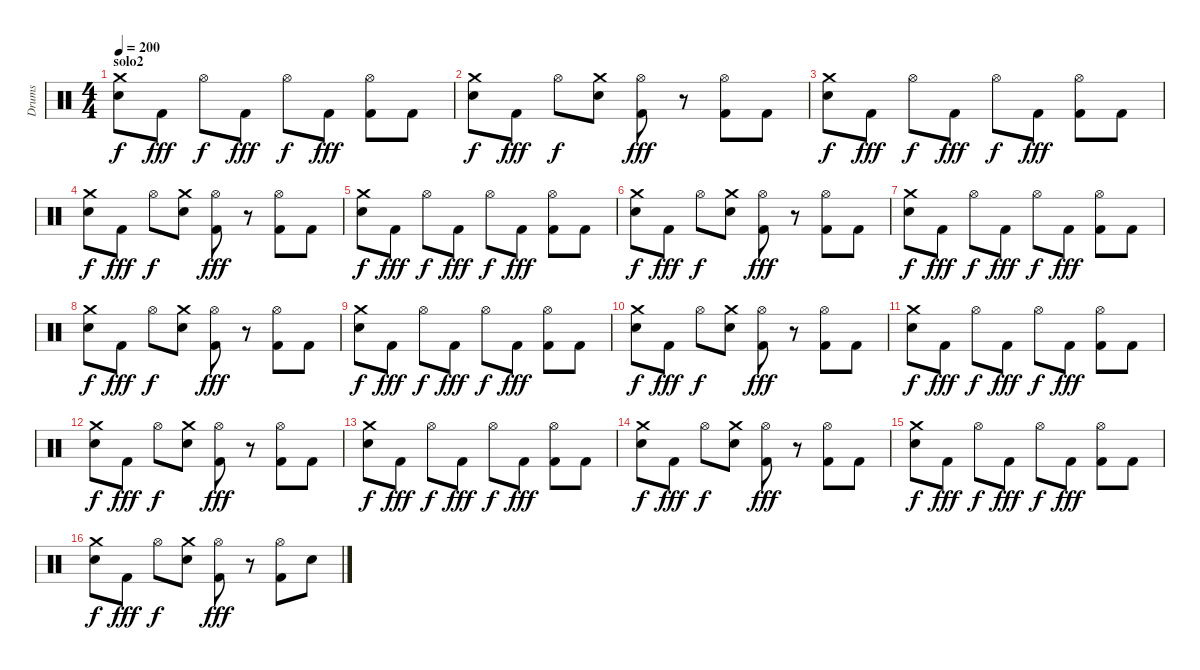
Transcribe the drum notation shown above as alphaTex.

\track ("Drums" "Drums") {instrument percussion}
\staff {score}
\articulation defaults
\ts (4 4)
\section ("" "solo2")
\tempo 200
\clef neutral
\ks c
("Crash medium (hit)" "Electric Snare (hit)").8{dy f} "Kick (hit) 2".8{dy fff} "Hi-Hat (open)".8{dy f} "Kick (hit) 2".8{dy fff} "Hi-Hat (open)".8{dy f} "Kick (hit) 2".8{dy fff} ("Hi-Hat (open)" "Kick (hit) 2").8 "Kick (hit) 2".8 |
("Crash medium (hit)" "Electric Snare (hit)").8{dy f} "Kick (hit) 2".8{dy fff} "Hi-Hat (open)".8{dy f} ("Crash medium (hit)" "Electric Snare (hit)").8 ("Hi-Hat (open)" "Kick (hit) 2").8{dy fff} r.8 ("Hi-Hat (open)" "Kick (hit) 2").8 "Kick (hit) 2".8 |
("Crash medium (hit)" "Electric Snare (hit)").8{dy f} "Kick (hit) 2".8{dy fff} "Hi-Hat (open)".8{dy f} "Kick (hit) 2".8{dy fff} "Hi-Hat (open)".8{dy f} "Kick (hit) 2".8{dy fff} ("Hi-Hat (open)" "Kick (hit) 2").8 "Kick (hit) 2".8 |
("Crash medium (hit)" "Electric Snare (hit)").8{dy f} "Kick (hit) 2".8{dy fff} "Hi-Hat (open)".8{dy f} ("Crash medium (hit)" "Electric Snare (hit)").8 ("Hi-Hat (open)" "Kick (hit) 2").8{dy fff} r.8 ("Hi-Hat (open)" "Kick (hit) 2").8 "Kick (hit) 2".8 |
("Crash medium (hit)" "Electric Snare (hit)").8{dy f} "Kick (hit) 2".8{dy fff} "Hi-Hat (open)".8{dy f} "Kick (hit) 2".8{dy fff} "Hi-Hat (open)".8{dy f} "Kick (hit) 2".8{dy fff} ("Hi-Hat (open)" "Kick (hit) 2").8 "Kick (hit) 2".8 |
("Crash medium (hit)" "Electric Snare (hit)").8{dy f} "Kick (hit) 2".8{dy fff} "Hi-Hat (open)".8{dy f} ("Crash medium (hit)" "Electric Snare (hit)").8 ("Hi-Hat (open)" "Kick (hit) 2").8{dy fff} r.8 ("Hi-Hat (open)" "Kick (hit) 2").8 "Kick (hit) 2".8 |
("Crash medium (hit)" "Electric Snare (hit)").8{dy f} "Kick (hit) 2".8{dy fff} "Hi-Hat (open)".8{dy f} "Kick (hit) 2".8{dy fff} "Hi-Hat (open)".8{dy f} "Kick (hit) 2".8{dy fff} ("Hi-Hat (open)" "Kick (hit) 2").8 "Kick (hit) 2".8 |
("Crash medium (hit)" "Electric Snare (hit)").8{dy f} "Kick (hit) 2".8{dy fff} "Hi-Hat (open)".8{dy f} ("Crash medium (hit)" "Electric Snare (hit)").8 ("Hi-Hat (open)" "Kick (hit) 2").8{dy fff} r.8 ("Hi-Hat (open)" "Kick (hit) 2").8 "Kick (hit) 2".8 |
("Crash medium (hit)" "Electric Snare (hit)").8{dy f} "Kick (hit) 2".8{dy fff} "Hi-Hat (open)".8{dy f} "Kick (hit) 2".8{dy fff} "Hi-Hat (open)".8{dy f} "Kick (hit) 2".8{dy fff} ("Hi-Hat (open)" "Kick (hit) 2").8 "Kick (hit) 2".8 |
("Crash medium (hit)" "Electric Snare (hit)").8{dy f} "Kick (hit) 2".8{dy fff} "Hi-Hat (open)".8{dy f} ("Crash medium (hit)" "Electric Snare (hit)").8 ("Hi-Hat (open)" "Kick (hit) 2").8{dy fff} r.8 ("Hi-Hat (open)" "Kick (hit) 2").8 "Kick (hit) 2".8 |
("Crash medium (hit)" "Electric Snare (hit)").8{dy f} "Kick (hit) 2".8{dy fff} "Hi-Hat (open)".8{dy f} "Kick (hit) 2".8{dy fff} "Hi-Hat (open)".8{dy f} "Kick (hit) 2".8{dy fff} ("Hi-Hat (open)" "Kick (hit) 2").8 "Kick (hit) 2".8 |
("Crash medium (hit)" "Electric Snare (hit)").8{dy f} "Kick (hit) 2".8{dy fff} "Hi-Hat (open)".8{dy f} ("Crash medium (hit)" "Electric Snare (hit)").8 ("Hi-Hat (open)" "Kick (hit) 2").8{dy fff} r.8 ("Hi-Hat (open)" "Kick (hit) 2").8 "Kick (hit) 2".8 |
("Crash medium (hit)" "Electric Snare (hit)").8{dy f} "Kick (hit) 2".8{dy fff} "Hi-Hat (open)".8{dy f} "Kick (hit) 2".8{dy fff} "Hi-Hat (open)".8{dy f} "Kick (hit) 2".8{dy fff} ("Hi-Hat (open)" "Kick (hit) 2").8 "Kick (hit) 2".8 |
("Crash medium (hit)" "Electric Snare (hit)").8{dy f} "Kick (hit) 2".8{dy fff} "Hi-Hat (open)".8{dy f} ("Crash medium (hit)" "Electric Snare (hit)").8 ("Hi-Hat (open)" "Kick (hit) 2").8{dy fff} r.8 ("Hi-Hat (open)" "Kick (hit) 2").8 "Kick (hit) 2".8 |
("Crash medium (hit)" "Electric Snare (hit)").8{dy f} "Kick (hit) 2".8{dy fff} "Hi-Hat (open)".8{dy f} "Kick (hit) 2".8{dy fff} "Hi-Hat (open)".8{dy f} "Kick (hit) 2".8{dy fff} ("Hi-Hat (open)" "Kick (hit) 2").8 "Kick (hit) 2".8 |
("Crash medium (hit)" "Electric Snare (hit)").8{dy f} "Kick (hit) 2".8{dy fff} "Hi-Hat (open)".8{dy f} ("Crash medium (hit)" "Electric Snare (hit)").8 ("Hi-Hat (open)" "Kick (hit) 2").8{dy fff} r.8 ("Hi-Hat (open)" "Kick (hit) 2").8 "Electric Snare (hit)".8
